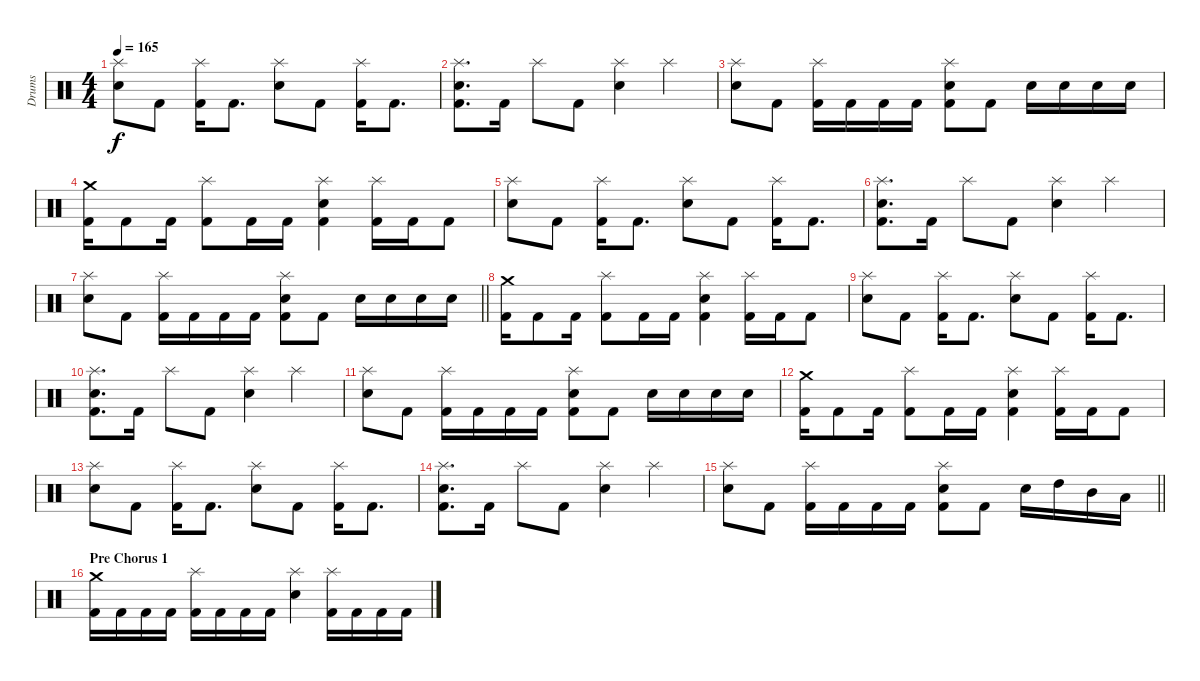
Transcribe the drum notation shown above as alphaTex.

\track ("Drums" "Drums") {instrument percussion}
\staff {score}
\articulation defaults
\ts (4 4)
\tempo 165
\clef neutral
\ks c
("Splash (hit)" "Snare (hit) 2").8{dy f} "Kick (hit) 2".8 ("Splash (hit)" "Kick (hit) 2").16 "Kick (hit) 2".8{d} ("Splash (hit)" "Snare (hit) 2").8 "Kick (hit) 2".8 ("Splash (hit)" "Kick (hit) 2").16 "Kick (hit) 2".8{d} |
("Splash (hit)" "Snare (hit) 2" "Kick (hit) 2").8{d} "Kick (hit) 2".16 "Splash (hit)".8 "Kick (hit) 2".8 ("Splash (hit)" "Snare (hit) 2").4 "Splash (hit)".4 |
("Splash (hit)" "Snare (hit) 2").8 "Kick (hit) 2".8 ("Splash (hit)" "Kick (hit) 2").16 "Kick (hit) 2".16 "Kick (hit) 2".16 "Kick (hit) 2".16 ("Splash (hit)" "Snare (hit) 2" "Kick (hit) 2").8 "Kick (hit) 2".8 "Snare (hit) 2".16 "Snare (hit) 2".16 "Snare (hit) 2".16 "Snare (hit) 2".16 |
("Crash medium (hit)" "Kick (hit) 2").16 "Kick (hit) 2".8 "Kick (hit) 2".16 ("Splash (hit)" "Kick (hit) 2").8 "Kick (hit) 2".16 "Kick (hit) 2".16 ("Splash (hit)" "Snare (hit) 2" "Kick (hit) 2").4 ("Splash (hit)" "Kick (hit) 2").16 "Kick (hit) 2".16 "Kick (hit) 2".8 |
("Splash (hit)" "Snare (hit) 2").8 "Kick (hit) 2".8 ("Splash (hit)" "Kick (hit) 2").16 "Kick (hit) 2".8{d} ("Splash (hit)" "Snare (hit) 2").8 "Kick (hit) 2".8 ("Splash (hit)" "Kick (hit) 2").16 "Kick (hit) 2".8{d} |
("Splash (hit)" "Snare (hit) 2" "Kick (hit) 2").8{d} "Kick (hit) 2".16 "Splash (hit)".8 "Kick (hit) 2".8 ("Splash (hit)" "Snare (hit) 2").4 "Splash (hit)".4 |
\barLineRight lightlight
("Splash (hit)" "Snare (hit) 2").8 "Kick (hit) 2".8 ("Splash (hit)" "Kick (hit) 2").16 "Kick (hit) 2".16 "Kick (hit) 2".16 "Kick (hit) 2".16 ("Splash (hit)" "Snare (hit) 2" "Kick (hit) 2").8 "Kick (hit) 2".8 "Snare (hit) 2".16 "Snare (hit) 2".16 "Snare (hit) 2".16 "Snare (hit) 2".16 |
("Crash medium (hit)" "Kick (hit) 2").16 "Kick (hit) 2".8 "Kick (hit) 2".16 ("Splash (hit)" "Kick (hit) 2").8 "Kick (hit) 2".16 "Kick (hit) 2".16 ("Splash (hit)" "Snare (hit) 2" "Kick (hit) 2").4 ("Splash (hit)" "Kick (hit) 2").16 "Kick (hit) 2".16 "Kick (hit) 2".8 |
("Splash (hit)" "Snare (hit) 2").8 "Kick (hit) 2".8 ("Splash (hit)" "Kick (hit) 2").16 "Kick (hit) 2".8{d} ("Splash (hit)" "Snare (hit) 2").8 "Kick (hit) 2".8 ("Splash (hit)" "Kick (hit) 2").16 "Kick (hit) 2".8{d} |
("Splash (hit)" "Snare (hit) 2" "Kick (hit) 2").8{d} "Kick (hit) 2".16 "Splash (hit)".8 "Kick (hit) 2".8 ("Splash (hit)" "Snare (hit) 2").4 "Splash (hit)".4 |
("Splash (hit)" "Snare (hit) 2").8 "Kick (hit) 2".8 ("Splash (hit)" "Kick (hit) 2").16 "Kick (hit) 2".16 "Kick (hit) 2".16 "Kick (hit) 2".16 ("Splash (hit)" "Snare (hit) 2" "Kick (hit) 2").8 "Kick (hit) 2".8 "Snare (hit) 2".16 "Snare (hit) 2".16 "Snare (hit) 2".16 "Snare (hit) 2".16 |
("Crash medium (hit)" "Kick (hit) 2").16 "Kick (hit) 2".8 "Kick (hit) 2".16 ("Splash (hit)" "Kick (hit) 2").8 "Kick (hit) 2".16 "Kick (hit) 2".16 ("Splash (hit)" "Snare (hit) 2" "Kick (hit) 2").4 ("Splash (hit)" "Kick (hit) 2").16 "Kick (hit) 2".16 "Kick (hit) 2".8 |
("Splash (hit)" "Snare (hit) 2").8 "Kick (hit) 2".8 ("Splash (hit)" "Kick (hit) 2").16 "Kick (hit) 2".8{d} ("Splash (hit)" "Snare (hit) 2").8 "Kick (hit) 2".8 ("Splash (hit)" "Kick (hit) 2").16 "Kick (hit) 2".8{d} |
("Splash (hit)" "Snare (hit) 2" "Kick (hit) 2").8{d} "Kick (hit) 2".16 "Splash (hit)".8 "Kick (hit) 2".8 ("Splash (hit)" "Snare (hit) 2").4 "Splash (hit)".4 |
\barLineRight lightlight
("Splash (hit)" "Snare (hit) 2").8 "Kick (hit) 2".8 ("Splash (hit)" "Kick (hit) 2").16 "Kick (hit) 2".16 "Kick (hit) 2".16 "Kick (hit) 2".16 ("Splash (hit)" "Snare (hit) 2" "Kick (hit) 2").8 "Kick (hit) 2".8 "Snare (hit) 2".16 "High Tom (hit)".16 "Mid Tom (hit)".16 "Low Tom (hit)".16 |
\section ("" "Pre Chorus 1")
("Crash medium (hit)" "Kick (hit) 2").16 "Kick (hit) 2".16 "Kick (hit) 2".16 "Kick (hit) 2".16 ("Splash (hit)" "Kick (hit) 2").16 "Kick (hit) 2".16 "Kick (hit) 2".16 "Kick (hit) 2".16 ("Splash (hit)" "Snare (hit) 2").4 ("Splash (hit)" "Kick (hit) 2").16 "Kick (hit) 2".16 "Kick (hit) 2".16 "Kick (hit) 2".16
